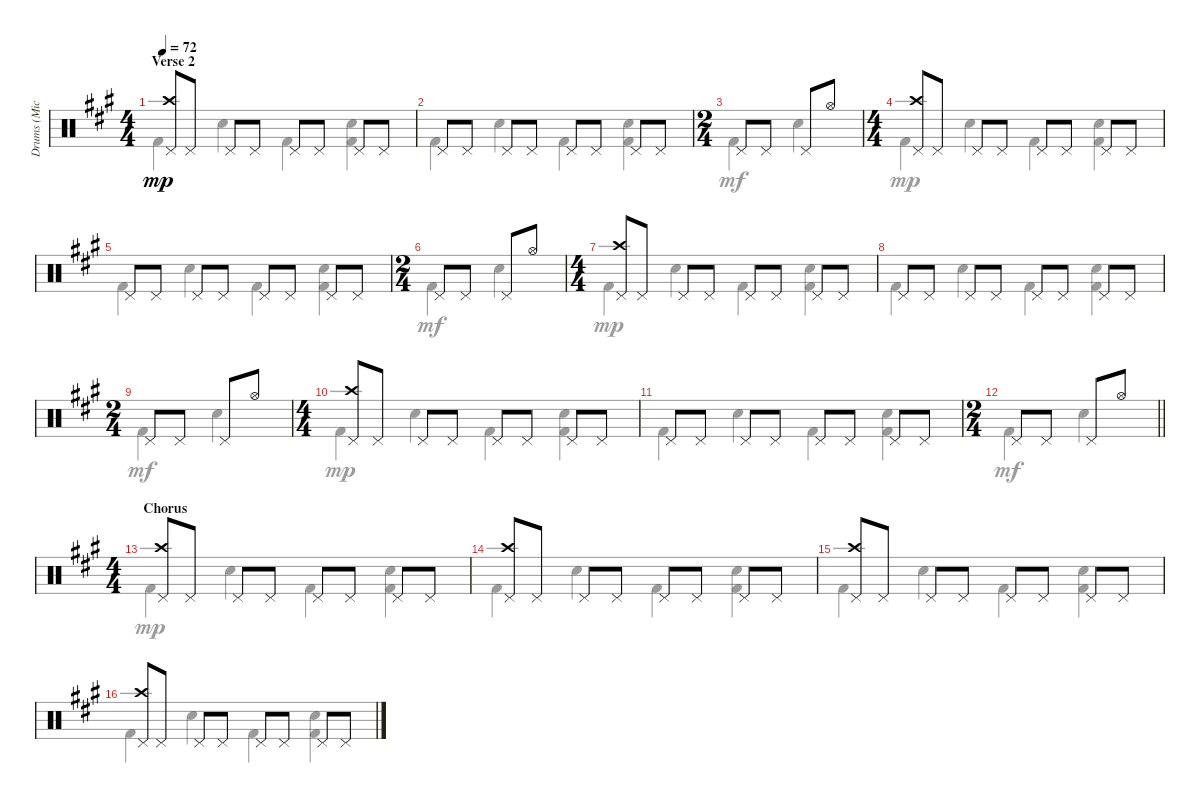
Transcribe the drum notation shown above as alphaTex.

\track ("Drums (Mick Fleetwood)" "Drums (Mic") {instrument percussion}
\staff {score}
\articulation defaults
\voice
\ts (4 4)
\section ("" "Verse 2")
\tempo 72
\clef neutral
\ks f#minor
("Crash high (hit)" "Pedal Hi-Hat (hit)").8{dy mp} "Pedal Hi-Hat (hit)".8 "Pedal Hi-Hat (hit)".8 "Pedal Hi-Hat (hit)".8 "Pedal Hi-Hat (hit)".8 "Pedal Hi-Hat (hit)".8 "Pedal Hi-Hat (hit)".8 "Pedal Hi-Hat (hit)".8 |
"Pedal Hi-Hat (hit)".8 "Pedal Hi-Hat (hit)".8 "Pedal Hi-Hat (hit)".8 "Pedal Hi-Hat (hit)".8 "Pedal Hi-Hat (hit)".8 "Pedal Hi-Hat (hit)".8 "Pedal Hi-Hat (hit)".8 "Pedal Hi-Hat (hit)".8 |
\ts (2 4)
"Pedal Hi-Hat (hit)".8 "Pedal Hi-Hat (hit)".8 "Pedal Hi-Hat (hit)".8 "Hi-Hat (open)".8 |
\ts (4 4)
("Crash high (hit)" "Pedal Hi-Hat (hit)").8 "Pedal Hi-Hat (hit)".8 "Pedal Hi-Hat (hit)".8 "Pedal Hi-Hat (hit)".8 "Pedal Hi-Hat (hit)".8 "Pedal Hi-Hat (hit)".8 "Pedal Hi-Hat (hit)".8 "Pedal Hi-Hat (hit)".8 |
"Pedal Hi-Hat (hit)".8 "Pedal Hi-Hat (hit)".8 "Pedal Hi-Hat (hit)".8 "Pedal Hi-Hat (hit)".8 "Pedal Hi-Hat (hit)".8 "Pedal Hi-Hat (hit)".8 "Pedal Hi-Hat (hit)".8 "Pedal Hi-Hat (hit)".8 |
\ts (2 4)
"Pedal Hi-Hat (hit)".8 "Pedal Hi-Hat (hit)".8 "Pedal Hi-Hat (hit)".8 "Hi-Hat (open)".8 |
\ts (4 4)
("Crash high (hit)" "Pedal Hi-Hat (hit)").8 "Pedal Hi-Hat (hit)".8 "Pedal Hi-Hat (hit)".8 "Pedal Hi-Hat (hit)".8 "Pedal Hi-Hat (hit)".8 "Pedal Hi-Hat (hit)".8 "Pedal Hi-Hat (hit)".8 "Pedal Hi-Hat (hit)".8 |
"Pedal Hi-Hat (hit)".8 "Pedal Hi-Hat (hit)".8 "Pedal Hi-Hat (hit)".8 "Pedal Hi-Hat (hit)".8 "Pedal Hi-Hat (hit)".8 "Pedal Hi-Hat (hit)".8 "Pedal Hi-Hat (hit)".8 "Pedal Hi-Hat (hit)".8 |
\ts (2 4)
"Pedal Hi-Hat (hit)".8 "Pedal Hi-Hat (hit)".8 "Pedal Hi-Hat (hit)".8 "Hi-Hat (open)".8 |
\ts (4 4)
("Crash high (hit)" "Pedal Hi-Hat (hit)").8 "Pedal Hi-Hat (hit)".8 "Pedal Hi-Hat (hit)".8 "Pedal Hi-Hat (hit)".8 "Pedal Hi-Hat (hit)".8 "Pedal Hi-Hat (hit)".8 "Pedal Hi-Hat (hit)".8 "Pedal Hi-Hat (hit)".8 |
"Pedal Hi-Hat (hit)".8 "Pedal Hi-Hat (hit)".8 "Pedal Hi-Hat (hit)".8 "Pedal Hi-Hat (hit)".8 "Pedal Hi-Hat (hit)".8 "Pedal Hi-Hat (hit)".8 "Pedal Hi-Hat (hit)".8 "Pedal Hi-Hat (hit)".8 |
\ts (2 4)
\barLineRight lightlight "Pedal Hi-Hat (hit)".8 "Pedal Hi-Hat (hit)".8 "Pedal Hi-Hat (hit)".8 "Hi-Hat (open)".8
|
\ts (4 4)
\section ("" "Chorus")
("Crash high (hit)" "Pedal Hi-Hat (hit)").8 "Pedal Hi-Hat (hit)".8 "Pedal Hi-Hat (hit)".8 "Pedal Hi-Hat (hit)".8 "Pedal Hi-Hat (hit)".8 "Pedal Hi-Hat (hit)".8 "Pedal Hi-Hat (hit)".8 "Pedal Hi-Hat (hit)".8 |
("Crash high (hit)" "Pedal Hi-Hat (hit)").8 "Pedal Hi-Hat (hit)".8 "Pedal Hi-Hat (hit)".8 "Pedal Hi-Hat (hit)".8 "Pedal Hi-Hat (hit)".8 "Pedal Hi-Hat (hit)".8 "Pedal Hi-Hat (hit)".8 "Pedal Hi-Hat (hit)".8 |
("Crash high (hit)" "Pedal Hi-Hat (hit)").8 "Pedal Hi-Hat (hit)".8 "Pedal Hi-Hat (hit)".8 "Pedal Hi-Hat (hit)".8 "Pedal Hi-Hat (hit)".8 "Pedal Hi-Hat (hit)".8 "Pedal Hi-Hat (hit)".8 "Pedal Hi-Hat (hit)".8 |
("Crash high (hit)" "Pedal Hi-Hat (hit)").8 "Pedal Hi-Hat (hit)".8 "Pedal Hi-Hat (hit)".8 "Pedal Hi-Hat (hit)".8 "Pedal Hi-Hat (hit)".8 "Pedal Hi-Hat (hit)".8 "Pedal Hi-Hat (hit)".8 "Pedal Hi-Hat (hit)".8
\voice
\clef neutral
\ottava regular
\simile none
\ks f#minor "Kick (hit) 2".4{dy mp} "Snare (hit) 2".4 "Kick (hit) 2".4
("Snare (hit) 2" "Kick (hit) 2").4 |
"Kick (hit) 2".4 "Snare (hit) 2".4 "Kick (hit) 2".4 ("Snare (hit) 2" "Kick (hit) 2").4 |
"Kick (hit) 2".4{dy mf} "Snare (hit) 2".4 |
"Kick (hit) 2".4{dy mp} "Snare (hit) 2".4 "Kick (hit) 2".4 ("Snare (hit) 2" "Kick (hit) 2").4 |
"Kick (hit) 2".4 "Snare (hit) 2".4 "Kick (hit) 2".4 ("Snare (hit) 2" "Kick (hit) 2").4 |
"Kick (hit) 2".4{dy mf} "Snare (hit) 2".4 |
"Kick (hit) 2".4{dy mp} "Snare (hit) 2".4 "Kick (hit) 2".4 ("Snare (hit) 2" "Kick (hit) 2").4 |
"Kick (hit) 2".4 "Snare (hit) 2".4 "Kick (hit) 2".4 ("Snare (hit) 2" "Kick (hit) 2").4 |
"Kick (hit) 2".4{dy mf} "Snare (hit) 2".4 |
"Kick (hit) 2".4{dy mp} "Snare (hit) 2".4 "Kick (hit) 2".4 ("Snare (hit) 2" "Kick (hit) 2").4 |
"Kick (hit) 2".4 "Snare (hit) 2".4 "Kick (hit) 2".4 ("Snare (hit) 2" "Kick (hit) 2").4 |
\barLineRight lightlight "Kick (hit) 2".4{dy mf} "Snare (hit) 2".4
|
"Kick (hit) 2".4{dy mp} "Snare (hit) 2".4 "Kick (hit) 2".4 ("Snare (hit) 2" "Kick (hit) 2").4 |
"Kick (hit) 2".4 "Snare (hit) 2".4 "Kick (hit) 2".4 ("Snare (hit) 2" "Kick (hit) 2").4 |
"Kick (hit) 2".4 "Snare (hit) 2".4 "Kick (hit) 2".4 ("Snare (hit) 2" "Kick (hit) 2").4 |
"Kick (hit) 2".4 "Snare (hit) 2".4 "Kick (hit) 2".4 ("Snare (hit) 2" "Kick (hit) 2").4
